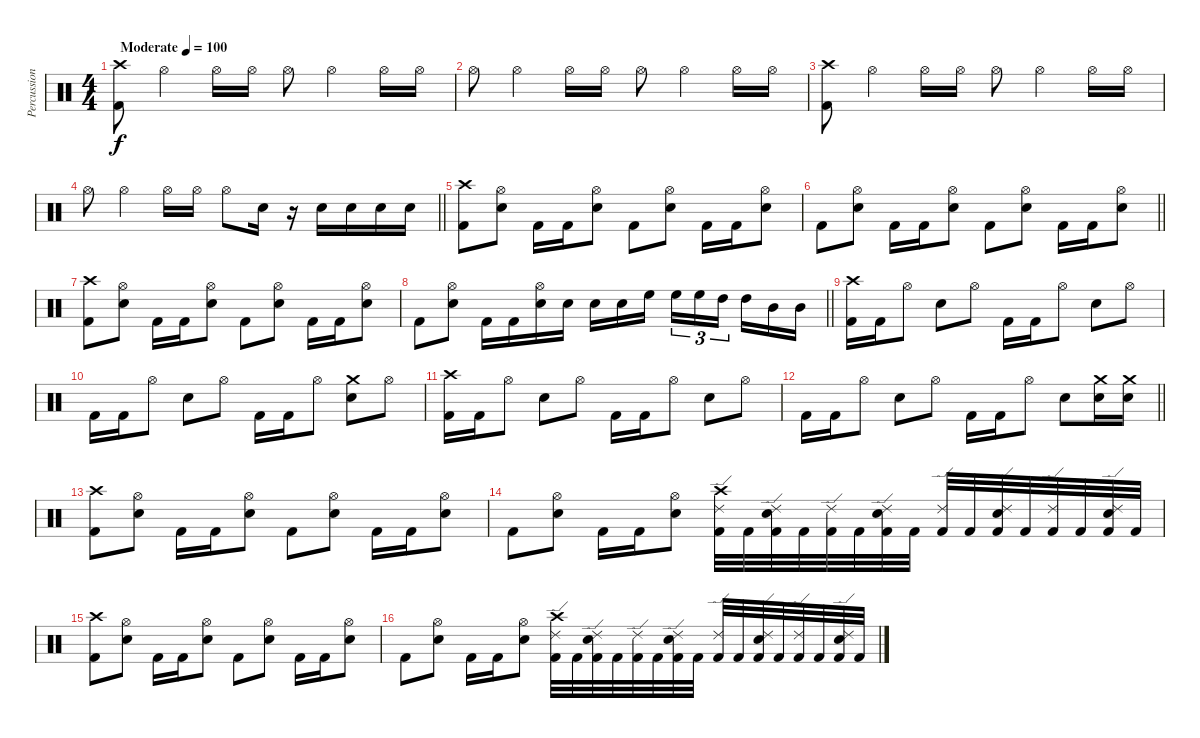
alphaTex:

\track ("Percussion" "Percussion") {instrument percussion}
\staff {score}
\articulation defaults
\ts (4 4)
\section ("" "")
\tempo (100 "Moderate")
\clef neutral
\ks c
("Crash high (hit)" "Kick (hit) 2").8{dy f} "Hi-Hat (open)".4 "Hi-Hat (open)".16 "Hi-Hat (open)".16 "Hi-Hat (open)".8 "Hi-Hat (open)".4 "Hi-Hat (open)".16 "Hi-Hat (open)".16 |
"Hi-Hat (open)".8 "Hi-Hat (open)".4 "Hi-Hat (open)".16 "Hi-Hat (open)".16 "Hi-Hat (open)".8 "Hi-Hat (open)".4 "Hi-Hat (open)".16 "Hi-Hat (open)".16 |
("Crash high (hit)" "Kick (hit) 2").8 "Hi-Hat (open)".4 "Hi-Hat (open)".16 "Hi-Hat (open)".16 "Hi-Hat (open)".8 "Hi-Hat (open)".4 "Hi-Hat (open)".16 "Hi-Hat (open)".16 |
\barLineRight lightlight "Hi-Hat (open)".8 "Hi-Hat (open)".4 "Hi-Hat (open)".16 "Hi-Hat (open)".16 "Hi-Hat (open)".8 "Snare (hit) 2".16
r.16 "Snare (hit) 2".16 "Snare (hit) 2".16 "Snare (hit) 2".16 "Snare (hit) 2".16 |
\section ("" "")
("Crash high (hit)" "Kick (hit) 2").8 ("Hi-Hat (open)" "Snare (hit) 2").8 "Kick (hit) 2".16 "Kick (hit) 2".16 ("Hi-Hat (open)" "Snare (hit) 2").8 "Kick (hit) 2".8 ("Hi-Hat (open)" "Snare (hit) 2").8 "Kick (hit) 2".16 "Kick (hit) 2".16 ("Hi-Hat (open)" "Snare (hit) 2").8 |
\barLineRight lightlight "Kick (hit) 2".8
("Hi-Hat (open)" "Snare (hit) 2").8 "Kick (hit) 2".16 "Kick (hit) 2".16 ("Hi-Hat (open)" "Snare (hit) 2").8 "Kick (hit) 2".8 ("Hi-Hat (open)" "Snare (hit) 2").8 "Kick (hit) 2".16 "Kick (hit) 2".16 ("Hi-Hat (open)" "Snare (hit) 2").8 |
("Crash high (hit)" "Kick (hit) 2").8 ("Hi-Hat (open)" "Snare (hit) 2").8 "Kick (hit) 2".16 "Kick (hit) 2".16 ("Hi-Hat (open)" "Snare (hit) 2").8 "Kick (hit) 2".8 ("Hi-Hat (open)" "Snare (hit) 2").8 "Kick (hit) 2".16 "Kick (hit) 2".16 ("Hi-Hat (open)" "Snare (hit) 2").8 |
\barLineRight lightlight "Kick (hit) 2".8
("Hi-Hat (open)" "Snare (hit) 2").8 "Kick (hit) 2".16 "Kick (hit) 2".16 ("Hi-Hat (open)" "Snare (hit) 2").16 "Snare (hit) 2".16 "Snare (hit) 2".16 "Snare (hit) 2".16 "High Floor Tom (hit)".16{beam splitsecondary} "High Floor Tom (hit)".16{tu (3 2)} "High Floor Tom (hit)".16{tu (3 2)} "High Tom (hit)".16{tu (3 2) beam splitsecondary} "High Tom (hit)".16 "Mid Tom (hit)".16 "Mid Tom (hit)".16 |
\section ("" "")
("Crash high (hit)" "Kick (hit) 2").16 "Kick (hit) 2".16 "Hi-Hat (open)".8 "Snare (hit) 2".8 "Hi-Hat (open)".8 "Kick (hit) 2".16 "Kick (hit) 2".16 "Hi-Hat (open)".8 "Snare (hit) 2".8 "Hi-Hat (open)".8 |
"Kick (hit) 2".16 "Kick (hit) 2".16 "Hi-Hat (open)".8 "Snare (hit) 2".8 "Hi-Hat (open)".8 "Kick (hit) 2".16 "Kick (hit) 2".16 "Hi-Hat (open)".8 ("Crash medium (hit)" "Snare (hit) 2").8 "Hi-Hat (open)".8 |
("Crash high (hit)" "Kick (hit) 2").16 "Kick (hit) 2".16 "Hi-Hat (open)".8 "Snare (hit) 2".8 "Hi-Hat (open)".8 "Kick (hit) 2".16 "Kick (hit) 2".16 "Hi-Hat (open)".8 "Snare (hit) 2".8 "Hi-Hat (open)".8 |
\barLineRight lightlight "Kick (hit) 2".16 "Kick (hit) 2".16 "Hi-Hat (open)".8 "Snare (hit) 2".8 "Hi-Hat (open)".8 "Kick (hit) 2".16 "Kick (hit) 2".16 "Hi-Hat (open)".8 "Snare (hit) 2".8
("Crash medium (hit)" "Snare (hit) 2").16 ("Crash medium (hit)" "Snare (hit) 2").16 |
\section ("" "")
("Crash high (hit)" "Kick (hit) 2").8 ("Hi-Hat (open)" "Snare (hit) 2").8 "Kick (hit) 2".16 "Kick (hit) 2".16 ("Hi-Hat (open)" "Snare (hit) 2").8 "Kick (hit) 2".8 ("Hi-Hat (open)" "Snare (hit) 2").8 "Kick (hit) 2".16 "Kick (hit) 2".16 ("Hi-Hat (open)" "Snare (hit) 2").8 |
"Kick (hit) 2".8 ("Hi-Hat (open)" "Snare (hit) 2").8 "Kick (hit) 2".16 "Kick (hit) 2".16 ("Hi-Hat (open)" "Snare (hit) 2").8 ("Ride (edge) 2" "Crash high (hit)" "Kick (hit) 2").32 "Kick (hit) 2".32 ("Ride (edge) 2" "Snare (hit) 2" "Kick (hit) 2").32 "Kick (hit) 2".32 ("Ride (edge) 2" "Kick (hit) 2").32 "Kick (hit) 2".32 ("Ride (edge) 2" "Snare (hit) 2" "Kick (hit) 2").32 "Kick (hit) 2".32 ("Ride (edge) 2" "Kick (hit) 2").32 "Kick (hit) 2".32 ("Ride (edge) 2" "Snare (hit) 2" "Kick (hit) 2").32 "Kick (hit) 2".32 ("Ride (edge) 2" "Kick (hit) 2").32 "Kick (hit) 2".32 ("Ride (edge) 2" "Snare (hit) 2" "Kick (hit) 2").32 "Kick (hit) 2".32 |
("Crash high (hit)" "Kick (hit) 2").8 ("Hi-Hat (open)" "Snare (hit) 2").8 "Kick (hit) 2".16 "Kick (hit) 2".16 ("Hi-Hat (open)" "Snare (hit) 2").8 "Kick (hit) 2".8 ("Hi-Hat (open)" "Snare (hit) 2").8 "Kick (hit) 2".16 "Kick (hit) 2".16 ("Hi-Hat (open)" "Snare (hit) 2").8 |
"Kick (hit) 2".8 ("Hi-Hat (open)" "Snare (hit) 2").8 "Kick (hit) 2".16 "Kick (hit) 2".16 ("Hi-Hat (open)" "Snare (hit) 2").8 ("Ride (edge) 2" "Crash high (hit)" "Kick (hit) 2").32 "Kick (hit) 2".32 ("Ride (edge) 2" "Snare (hit) 2" "Kick (hit) 2").32 "Kick (hit) 2".32 ("Ride (edge) 2" "Kick (hit) 2").32 "Kick (hit) 2".32 ("Ride (edge) 2" "Snare (hit) 2" "Kick (hit) 2").32 "Kick (hit) 2".32 ("Ride (edge) 2" "Kick (hit) 2").32 "Kick (hit) 2".32 ("Ride (edge) 2" "Snare (hit) 2" "Kick (hit) 2").32 "Kick (hit) 2".32 ("Ride (edge) 2" "Kick (hit) 2").32 "Kick (hit) 2".32 ("Ride (edge) 2" "Snare (hit) 2" "Kick (hit) 2").32 "Kick (hit) 2".32
